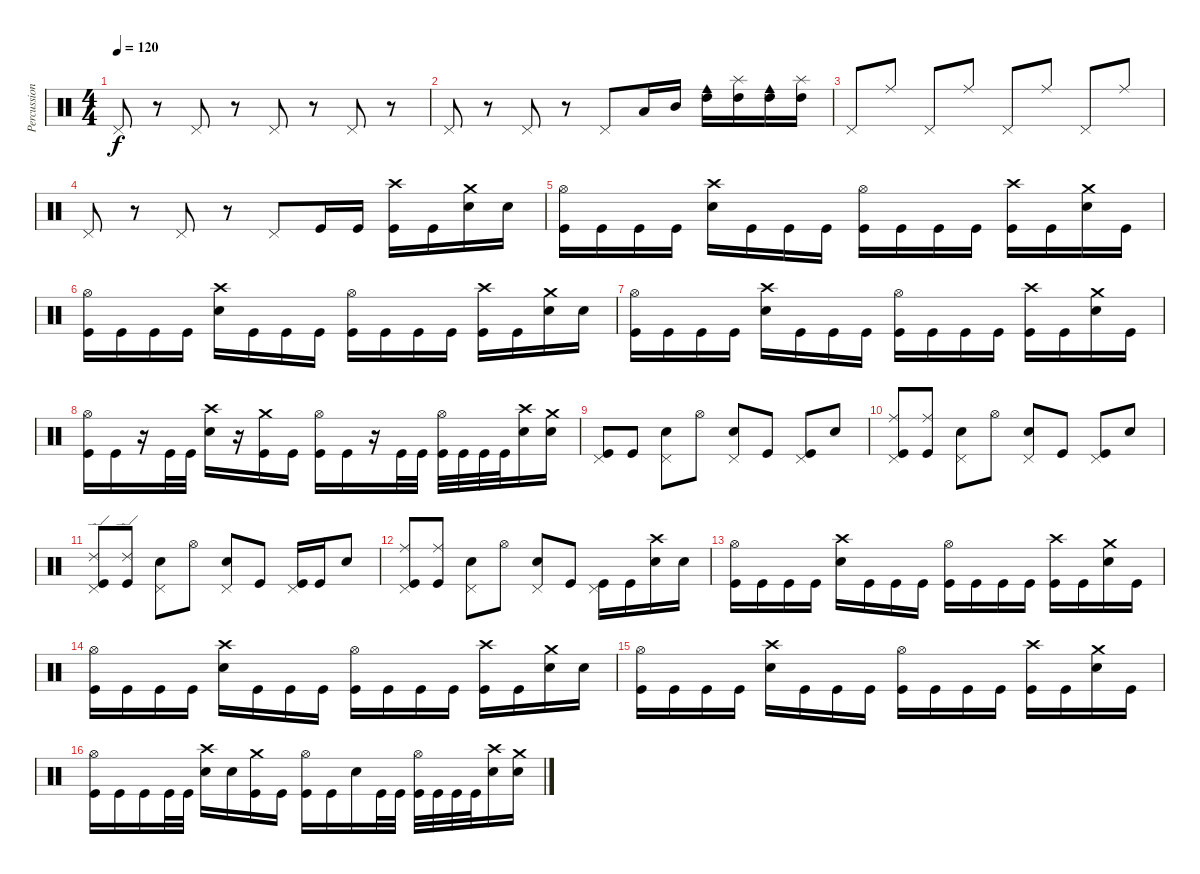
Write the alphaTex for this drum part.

\track ("Percussions" "Percussion") {instrument percussion}
\staff {score}
\articulation defaults
\ts (4 4)
\tempo 120
\clef neutral
\ks c "Pedal Hi-Hat (hit)".8{dy f}
r.8 "Pedal Hi-Hat (hit)".8 r.8 "Pedal Hi-Hat (hit)".8 r.8 "Pedal Hi-Hat (hit)".8 r.8 |
"Pedal Hi-Hat (hit)".8 r.8 "Pedal Hi-Hat (hit)".8 r.8 "Pedal Hi-Hat (hit)".8 "Low Tom (hit)".16 "Mid Tom (hit)".16 ("Cowbell medium (hit)" "High Tom (hit)").16 ("Splash (hit)" "High Tom (hit)").16 ("Cowbell medium (hit)" "High Tom (hit)").16 ("Splash (hit)" "High Tom (hit)").16 |
"Pedal Hi-Hat (hit)".8 "Ride (middle)".8 "Pedal Hi-Hat (hit)".8 "Ride (middle)".8 "Pedal Hi-Hat (hit)".8 "Ride (middle)".8 "Pedal Hi-Hat (hit)".8 "Ride (middle)".8 |
"Pedal Hi-Hat (hit)".8 r.8 "Pedal Hi-Hat (hit)".8 r.8 "Pedal Hi-Hat (hit)".8 "Kick (hit)".16 "Kick (hit)".16 ("Crash high (hit)" "Kick (hit)").16 "Kick (hit)".16 ("Crash medium (hit)" "Snare (hit) 2").16 "Snare (hit) 2".16 |
("Hi-Hat (open)" "Kick (hit)").16 "Kick (hit)".16 "Kick (hit)".16 "Kick (hit)".16 ("Crash high (hit)" "Snare (hit) 2").16 "Kick (hit)".16 "Kick (hit)".16 "Kick (hit)".16 ("Hi-Hat (open)" "Kick (hit)").16 "Kick (hit)".16 "Kick (hit)".16 "Kick (hit)".16 ("Crash high (hit)" "Kick (hit)").16 "Kick (hit)".16 ("Crash medium (hit)" "Snare (hit) 2").16 "Kick (hit)".16 |
("Hi-Hat (open)" "Kick (hit)").16 "Kick (hit)".16 "Kick (hit)".16 "Kick (hit)".16 ("Crash high (hit)" "Snare (hit) 2").16 "Kick (hit)".16 "Kick (hit)".16 "Kick (hit)".16 ("Hi-Hat (open)" "Kick (hit)").16 "Kick (hit)".16 "Kick (hit)".16 "Kick (hit)".16 ("Crash high (hit)" "Kick (hit)").16 "Kick (hit)".16 ("Crash medium (hit)" "Snare (hit) 2").16 "Snare (hit) 2".16 |
("Hi-Hat (open)" "Kick (hit)").16 "Kick (hit)".16 "Kick (hit)".16 "Kick (hit)".16 ("Crash high (hit)" "Snare (hit) 2").16 "Kick (hit)".16 "Kick (hit)".16 "Kick (hit)".16 ("Hi-Hat (open)" "Kick (hit)").16 "Kick (hit)".16 "Kick (hit)".16 "Kick (hit)".16 ("Crash high (hit)" "Kick (hit)").16 "Kick (hit)".16 ("Crash medium (hit)" "Snare (hit) 2").16 "Kick (hit)".16 |
("Hi-Hat (open)" "Kick (hit)").16 "Kick (hit)".16 r.16 "Kick (hit)".32 "Kick (hit)".32 ("Crash high (hit)" "Snare (hit) 2").16 r.16 ("Crash medium (hit)" "Kick (hit)").16 "Kick (hit)".16 ("Hi-Hat (open)" "Kick (hit)").16 "Kick (hit)".16 r.16 "Kick (hit)".32 "Kick (hit)".32 ("Hi-Hat (open)" "Kick (hit)").32 "Kick (hit)".32 "Kick (hit)".32 "Kick (hit)".32 ("Crash high (hit)" "Snare (hit) 2").16 ("Crash medium (hit)" "Snare (hit) 2").16 |
("Pedal Hi-Hat (hit)" "Kick (hit)").8 "Kick (hit)".8 ("Pedal Hi-Hat (hit)" "Snare (hit) 2").8 "Hi-Hat (open)".8 ("Pedal Hi-Hat (hit)" "Snare (hit) 2").8 "Kick (hit)".8 ("Pedal Hi-Hat (hit)" "Kick (hit)").8 "Snare (hit) 2".8 |
("Pedal Hi-Hat (hit)" "Ride (middle)" "Kick (hit)").8 ("Ride (middle)" "Kick (hit)").8 ("Pedal Hi-Hat (hit)" "Snare (hit) 2").8 "Hi-Hat (open)".8 ("Pedal Hi-Hat (hit)" "Snare (hit) 2").8 "Kick (hit)".8 ("Pedal Hi-Hat (hit)" "Kick (hit)").8 "Snare (hit) 2".8 |
("Pedal Hi-Hat (hit)" "Ride (edge) 2" "Kick (hit)").8 ("Ride (edge) 2" "Kick (hit)").8 ("Pedal Hi-Hat (hit)" "Snare (hit) 2").8 "Hi-Hat (open)".8 ("Pedal Hi-Hat (hit)" "Snare (hit) 2").8 "Kick (hit)".8 ("Pedal Hi-Hat (hit)" "Kick (hit)").16 "Kick (hit)".16 "Snare (hit) 2".8 |
("Pedal Hi-Hat (hit)" "Ride (middle)" "Kick (hit)").8 ("Ride (middle)" "Kick (hit)").8 ("Pedal Hi-Hat (hit)" "Snare (hit) 2").8 "Hi-Hat (open)".8 ("Pedal Hi-Hat (hit)" "Snare (hit) 2").8 "Kick (hit)".8 ("Pedal Hi-Hat (hit)" "Kick (hit)").16 "Kick (hit)".16 ("Crash high (hit)" "Snare (hit) 2").16 "Snare (hit) 2".16 |
("Hi-Hat (open)" "Kick (hit)").16 "Kick (hit)".16 "Kick (hit)".16 "Kick (hit)".16 ("Crash high (hit)" "Snare (hit) 2").16 "Kick (hit)".16 "Kick (hit)".16 "Kick (hit)".16 ("Hi-Hat (open)" "Kick (hit)").16 "Kick (hit)".16 "Kick (hit)".16 "Kick (hit)".16 ("Crash high (hit)" "Kick (hit)").16 "Kick (hit)".16 ("Crash medium (hit)" "Snare (hit) 2").16 "Kick (hit)".16 |
("Hi-Hat (open)" "Kick (hit)").16 "Kick (hit)".16 "Kick (hit)".16 "Kick (hit)".16 ("Crash high (hit)" "Snare (hit) 2").16 "Kick (hit)".16 "Kick (hit)".16 "Kick (hit)".16 ("Hi-Hat (open)" "Kick (hit)").16 "Kick (hit)".16 "Kick (hit)".16 "Kick (hit)".16 ("Crash high (hit)" "Kick (hit)").16 "Kick (hit)".16 ("Crash medium (hit)" "Snare (hit) 2").16 "Snare (hit) 2".16 |
("Hi-Hat (open)" "Kick (hit)").16 "Kick (hit)".16 "Kick (hit)".16 "Kick (hit)".16 ("Crash high (hit)" "Snare (hit) 2").16 "Kick (hit)".16 "Kick (hit)".16 "Kick (hit)".16 ("Hi-Hat (open)" "Kick (hit)").16 "Kick (hit)".16 "Kick (hit)".16 "Kick (hit)".16 ("Crash high (hit)" "Kick (hit)").16 "Kick (hit)".16 ("Crash medium (hit)" "Snare (hit) 2").16 "Kick (hit)".16 |
("Hi-Hat (open)" "Kick (hit)").16 "Kick (hit)".16 "Kick (hit)".16 "Kick (hit)".32 "Kick (hit)".32 ("Crash high (hit)" "Snare (hit) 2").16 "Snare (hit) 2".16 ("Crash medium (hit)" "Kick (hit)").16 "Kick (hit)".16 ("Hi-Hat (open)" "Kick (hit)").16 "Kick (hit)".16 "Snare (hit) 2".16 "Kick (hit)".32 "Kick (hit)".32 ("Hi-Hat (open)" "Kick (hit)").32 "Kick (hit)".32 "Kick (hit)".32 "Kick (hit)".32 ("Crash high (hit)" "Snare (hit) 2").16 ("Crash medium (hit)" "Snare (hit) 2").16
